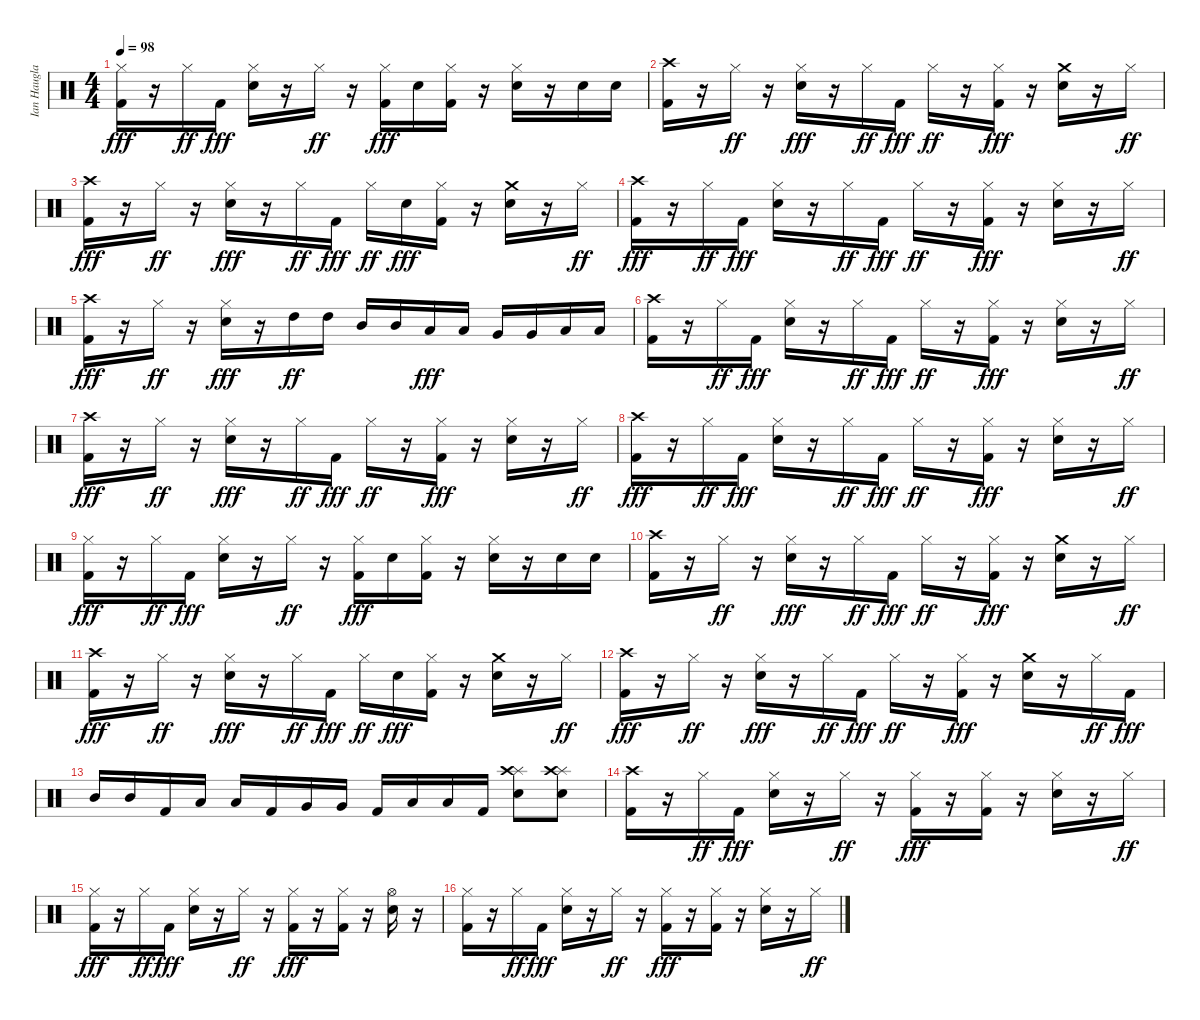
\track ("Ian Haugland" "Ian Haugla") {instrument percussion}
\staff {score}
\articulation defaults
\ts (4 4)
\tempo 98
\clef neutral
\ks c
("Hi-Hat (closed)" "Kick (hit) 2").16{dy fff} r.16 "Hi-Hat (closed)".16{dy ff} "Kick (hit) 2".16{dy fff} ("Hi-Hat (closed)" "Electric Snare (hit)").16 r.16 "Hi-Hat (closed)".16{dy ff} r.16 ("Hi-Hat (closed)" "Kick (hit) 2").16{dy fff} "Electric Snare (hit)".16 ("Hi-Hat (closed)" "Kick (hit) 2").16 r.16 ("Hi-Hat (closed)" "Electric Snare (hit)").16 r.16 "Electric Snare (hit)".16 "Electric Snare (hit)".16 |
("Crash high (hit)" "Kick (hit) 2").16 r.16 "Hi-Hat (closed)".16{dy ff} r.16 ("Hi-Hat (closed)" "Electric Snare (hit)").16{dy fff} r.16 "Hi-Hat (closed)".16{dy ff} "Kick (hit) 2".16{dy fff} "Hi-Hat (closed)".16{dy ff} r.16 ("Hi-Hat (closed)" "Kick (hit) 2").16{dy fff} r.16 ("Crash medium (hit)" "Electric Snare (hit)").16 r.16 "Hi-Hat (closed)".16{dy ff} |
("Crash high (hit)" "Kick (hit) 2").16{dy fff} r.16 "Hi-Hat (closed)".16{dy ff} r.16 ("Hi-Hat (closed)" "Electric Snare (hit)").16{dy fff} r.16 "Hi-Hat (closed)".16{dy ff} "Kick (hit) 2".16{dy fff} "Hi-Hat (closed)".16{dy ff} "Electric Snare (hit)".16{dy fff} ("Hi-Hat (closed)" "Kick (hit) 2").16 r.16 ("Crash medium (hit)" "Electric Snare (hit)").16 r.16 "Hi-Hat (closed)".16{dy ff} |
("Crash high (hit)" "Kick (hit) 2").16{dy fff} r.16 "Hi-Hat (closed)".16{dy ff} "Kick (hit) 2".16{dy fff} ("Hi-Hat (closed)" "Electric Snare (hit)").16 r.16 "Hi-Hat (closed)".16{dy ff} "Kick (hit) 2".16{dy fff} "Hi-Hat (closed)".16{dy ff} r.16 ("Hi-Hat (closed)" "Kick (hit) 2").16{dy fff} r.16 ("Hi-Hat (closed)" "Electric Snare (hit)").16 r.16 "Hi-Hat (closed)".16{dy ff} |
("Crash high (hit)" "Kick (hit) 2").16{dy fff} r.16 "Hi-Hat (closed)".16{dy ff} r.16 ("Hi-Hat (closed)" "Electric Snare (hit)").16{dy fff} r.16 "High Tom (hit)".16{dy ff} "High Tom (hit)".16 "Mid Tom (hit)".16 "Mid Tom (hit)".16 "Low Tom (hit)".16{dy fff} "Low Tom (hit)".16 "Very Low Tom (hit)".16 "Very Low Tom (hit)".16 "Low Floor Tom (hit)".16 "Low Floor Tom (hit)".16 |
("Crash high (hit)" "Kick (hit) 2").16 r.16 "Hi-Hat (closed)".16{dy ff} "Kick (hit) 2".16{dy fff} ("Hi-Hat (closed)" "Electric Snare (hit)").16 r.16 "Hi-Hat (closed)".16{dy ff} "Kick (hit) 2".16{dy fff} "Hi-Hat (closed)".16{dy ff} r.16 ("Hi-Hat (closed)" "Kick (hit) 2").16{dy fff} r.16 ("Hi-Hat (closed)" "Electric Snare (hit)").16 r.16 "Hi-Hat (closed)".16{dy ff} |
("Crash high (hit)" "Kick (hit) 2").16{dy fff} r.16 "Hi-Hat (closed)".16{dy ff} r.16 ("Hi-Hat (closed)" "Electric Snare (hit)").16{dy fff} r.16 "Hi-Hat (closed)".16{dy ff} "Kick (hit) 2".16{dy fff} "Hi-Hat (closed)".16{dy ff} r.16 ("Hi-Hat (closed)" "Kick (hit) 2").16{dy fff} r.16 ("Hi-Hat (closed)" "Electric Snare (hit)").16 r.16 "Hi-Hat (closed)".16{dy ff} |
("Crash high (hit)" "Kick (hit) 2").16{dy fff} r.16 "Hi-Hat (closed)".16{dy ff} "Kick (hit) 2".16{dy fff} ("Hi-Hat (closed)" "Electric Snare (hit)").16 r.16 "Hi-Hat (closed)".16{dy ff} "Kick (hit) 2".16{dy fff} "Hi-Hat (closed)".16{dy ff} r.16 ("Hi-Hat (closed)" "Kick (hit) 2").16{dy fff} r.16 ("Hi-Hat (closed)" "Electric Snare (hit)").16 r.16 "Hi-Hat (closed)".16{dy ff} |
("Hi-Hat (closed)" "Kick (hit) 2").16{dy fff} r.16 "Hi-Hat (closed)".16{dy ff} "Kick (hit) 2".16{dy fff} ("Hi-Hat (closed)" "Electric Snare (hit)").16 r.16 "Hi-Hat (closed)".16{dy ff} r.16 ("Hi-Hat (closed)" "Kick (hit) 2").16{dy fff} "Electric Snare (hit)".16 ("Hi-Hat (closed)" "Kick (hit) 2").16 r.16 ("Hi-Hat (closed)" "Electric Snare (hit)").16 r.16 "Electric Snare (hit)".16 "Electric Snare (hit)".16 |
("Crash high (hit)" "Kick (hit) 2").16 r.16 "Hi-Hat (closed)".16{dy ff} r.16 ("Hi-Hat (closed)" "Electric Snare (hit)").16{dy fff} r.16 "Hi-Hat (closed)".16{dy ff} "Kick (hit) 2".16{dy fff} "Hi-Hat (closed)".16{dy ff} r.16 ("Hi-Hat (closed)" "Kick (hit) 2").16{dy fff} r.16 ("Crash medium (hit)" "Electric Snare (hit)").16 r.16 "Hi-Hat (closed)".16{dy ff} |
("Crash high (hit)" "Kick (hit) 2").16{dy fff} r.16 "Hi-Hat (closed)".16{dy ff} r.16 ("Hi-Hat (closed)" "Electric Snare (hit)").16{dy fff} r.16 "Hi-Hat (closed)".16{dy ff} "Kick (hit) 2".16{dy fff} "Hi-Hat (closed)".16{dy ff} "Electric Snare (hit)".16{dy fff} ("Hi-Hat (closed)" "Kick (hit) 2").16 r.16 ("Crash medium (hit)" "Electric Snare (hit)").16 r.16 "Hi-Hat (closed)".16{dy ff} |
("Crash high (hit)" "Kick (hit) 2").16{dy fff} r.16 "Hi-Hat (closed)".16{dy ff} r.16 ("Hi-Hat (closed)" "Electric Snare (hit)").16{dy fff} r.16 "Hi-Hat (closed)".16{dy ff} "Kick (hit) 2".16{dy fff} "Hi-Hat (closed)".16{dy ff} r.16 ("Hi-Hat (closed)" "Kick (hit) 2").16{dy fff} r.16 ("Crash medium (hit)" "Electric Snare (hit)").16 r.16 "Hi-Hat (closed)".16{dy ff} "Kick (hit) 2".16{dy fff} |
"Mid Tom (hit)".16 "Mid Tom (hit)".16 "Kick (hit) 2".16 "Low Tom (hit)".16 "Low Tom (hit)".16 "Kick (hit) 2".16 "Very Low Tom (hit)".16 "Very Low Tom (hit)".16 "Kick (hit) 2".16 "Low Floor Tom (hit)".16 "Low Floor Tom (hit)".16 "Kick (hit) 2".16 ("Splash (hit)" "Crash high (hit)" "Electric Snare (hit)").8 ("Splash (hit)" "Crash high (hit)" "Electric Snare (hit)").8 |
("Crash high (hit)" "Kick (hit) 2").16 r.16 "Hi-Hat (closed)".16{dy ff} "Kick (hit) 2".16{dy fff} ("Hi-Hat (closed)" "Electric Snare (hit)").16 r.16 "Hi-Hat (closed)".16{dy ff} r.16 ("Hi-Hat (closed)" "Kick (hit) 2").16{dy fff} r.16 ("Hi-Hat (closed)" "Kick (hit) 2").16 r.16 ("Hi-Hat (closed)" "Electric Snare (hit)").16 r.16 "Hi-Hat (closed)".16{dy ff} |
("Hi-Hat (closed)" "Kick (hit) 2").16{dy fff} r.16 "Hi-Hat (closed)".16{dy ff} "Kick (hit) 2".16{dy fff} ("Hi-Hat (closed)" "Electric Snare (hit)").16 r.16 "Hi-Hat (closed)".16{dy ff} r.16 ("Hi-Hat (closed)" "Kick (hit) 2").16{dy fff} r.16 ("Hi-Hat (closed)" "Kick (hit) 2").16 r.16 ("Hi-Hat (open)" "Electric Snare (hit)").16 r.16 |
("Hi-Hat (closed)" "Kick (hit) 2").16 r.16 "Hi-Hat (closed)".16{dy ff} "Kick (hit) 2".16{dy fff} ("Hi-Hat (closed)" "Electric Snare (hit)").16 r.16 "Hi-Hat (closed)".16{dy ff} r.16 ("Hi-Hat (closed)" "Kick (hit) 2").16{dy fff} r.16 ("Hi-Hat (closed)" "Kick (hit) 2").16 r.16 ("Hi-Hat (closed)" "Electric Snare (hit)").16 r.16 "Hi-Hat (closed)".16{dy ff}
